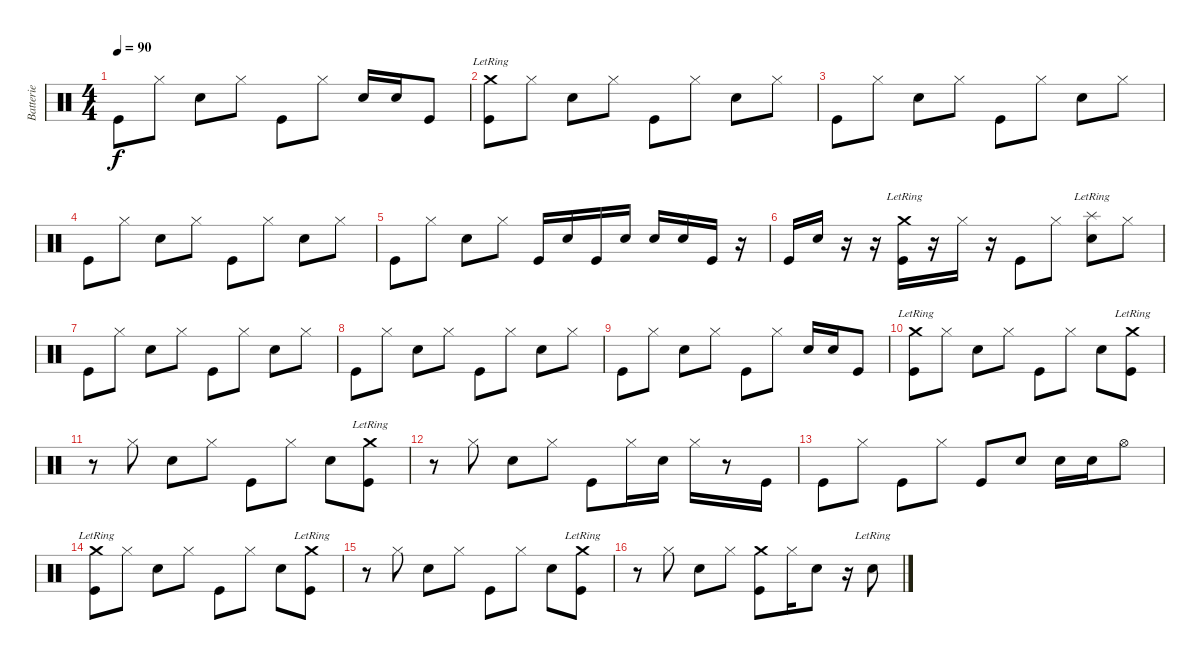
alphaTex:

\track ("Batterie" "Batterie") {instrument percussion}
\staff {score}
\articulation defaults
\ts (4 4)
\tempo 90
\clef neutral
\ks c "Kick (hit)".8{dy f} "Hi-Hat (closed)".8 "Metronome (bell)".8 "Hi-Hat (closed)".8 "Kick (hit)".8 "Hi-Hat (closed)".8 "Metronome (bell)".16 "Metronome (bell)".16 "Kick (hit)".8
|
("Crash medium (hit)"{lr} "Kick (hit)").8 "Hi-Hat (closed)".8 "Metronome (bell)".8 "Hi-Hat (closed)".8 "Kick (hit)".8 "Hi-Hat (closed)".8 "Metronome (bell)".8 "Hi-Hat (closed)".8 |
"Kick (hit)".8 "Hi-Hat (closed)".8 "Metronome (bell)".8 "Hi-Hat (closed)".8 "Kick (hit)".8 "Hi-Hat (closed)".8 "Metronome (bell)".8 "Hi-Hat (closed)".8 |
"Kick (hit)".8 "Hi-Hat (closed)".8 "Metronome (bell)".8 "Hi-Hat (closed)".8 "Kick (hit)".8 "Hi-Hat (closed)".8 "Metronome (bell)".8 "Hi-Hat (closed)".8 |
"Kick (hit)".8 "Hi-Hat (closed)".8 "Metronome (bell)".8 "Hi-Hat (closed)".8 "Kick (hit)".16 "Metronome (bell)".16 "Kick (hit)".16 "Metronome (bell)".16 "Metronome (bell)".16 "Metronome (bell)".16 "Kick (hit)".16 r.16 |
"Kick (hit)".16 "Metronome (bell)".16 r.16 r.16 ("Crash medium (hit)"{lr} "Kick (hit)").16 r.16 "Hi-Hat (closed)".16 r.16 "Kick (hit)".8 "Hi-Hat (closed)".8 ("Metronome (bell)" "Splash (hit)"{lr}).8 "Hi-Hat (closed)".8 |
"Kick (hit)".8 "Hi-Hat (closed)".8 "Metronome (bell)".8 "Hi-Hat (closed)".8 "Kick (hit)".8 "Hi-Hat (closed)".8 "Metronome (bell)".8 "Hi-Hat (closed)".8 |
"Kick (hit)".8 "Hi-Hat (closed)".8 "Metronome (bell)".8 "Hi-Hat (closed)".8 "Kick (hit)".8 "Hi-Hat (closed)".8 "Metronome (bell)".8 "Hi-Hat (closed)".8 |
"Kick (hit)".8 "Hi-Hat (closed)".8 "Metronome (bell)".8 "Hi-Hat (closed)".8 "Kick (hit)".8 "Hi-Hat (closed)".8 "Metronome (bell)".16 "Metronome (bell)".16 "Kick (hit)".8 |
("Crash medium (hit)"{lr} "Kick (hit)").8 "Hi-Hat (closed)".8 "Metronome (bell)".8 "Hi-Hat (closed)".8 "Kick (hit)".8 "Hi-Hat (closed)".8 "Metronome (bell)".8 ("Crash medium (hit)"{lr} "Kick (hit)").8 |
r.8 "Hi-Hat (closed)".8 "Metronome (bell)".8 "Hi-Hat (closed)".8 "Kick (hit)".8 "Hi-Hat (closed)".8 "Metronome (bell)".8 ("Crash medium (hit)"{lr} "Kick (hit)").8 |
r.8 "Hi-Hat (closed)".8 "Metronome (bell)".8 "Hi-Hat (closed)".8 "Kick (hit)".8 "Hi-Hat (closed)".16 "Metronome (bell)".16 "Hi-Hat (closed)".16 r.8 "Kick (hit)".16 |
"Kick (hit)".8 "Hi-Hat (closed)".8 "Kick (hit)".8 "Hi-Hat (closed)".8 "Kick (hit)".8 "Metronome (bell)".8 "Metronome (bell)".16 "Metronome (bell)".16 "Hi-Hat (open)".8 |
("Crash medium (hit)"{lr} "Kick (hit)").8 "Hi-Hat (closed)".8 "Metronome (bell)".8 "Hi-Hat (closed)".8 "Kick (hit)".8 "Hi-Hat (closed)".8 "Metronome (bell)".8 ("Crash medium (hit)"{lr} "Kick (hit)").8 |
r.8 "Hi-Hat (closed)".8 "Metronome (bell)".8 "Hi-Hat (closed)".8 "Kick (hit)".8 "Hi-Hat (closed)".8 "Metronome (bell)".8 ("Crash medium (hit)"{lr} "Kick (hit)").8 |
r.8 "Hi-Hat (closed)".8 "Metronome (bell)".8 "Hi-Hat (closed)".8 ("Crash medium (hit)" "Kick (hit)").8 "Hi-Hat (closed)".16 "Metronome (bell)".8 r.16 "Metronome (bell)"{lr}.8
